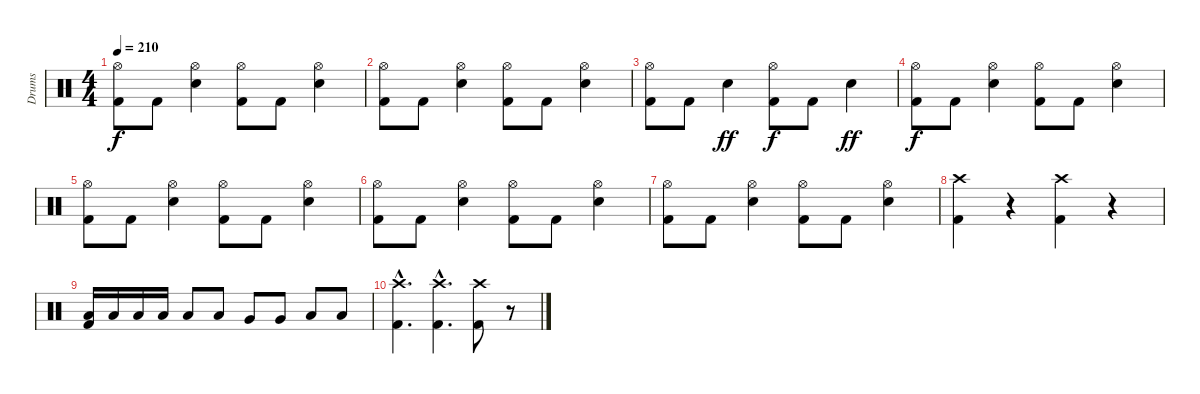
\track ("Drums" "Drums") {instrument percussion}
\staff {score}
\articulation defaults
\ts (4 4)
\tempo 210
\clef neutral
\ks c
("Hi-Hat (open)" "Kick (hit) 2").8{dy f} "Kick (hit) 2".8 ("Hi-Hat (open)" "Snare (hit) 2").4 ("Hi-Hat (open)" "Kick (hit) 2").8 "Kick (hit) 2".8 ("Hi-Hat (open)" "Snare (hit) 2").4 |
("Hi-Hat (open)" "Kick (hit) 2").8 "Kick (hit) 2".8 ("Hi-Hat (open)" "Snare (hit) 2").4 ("Hi-Hat (open)" "Kick (hit) 2").8 "Kick (hit) 2".8 ("Hi-Hat (open)" "Snare (hit) 2").4 |
("Hi-Hat (open)" "Kick (hit) 2").8 "Kick (hit) 2".8 "Snare (hit) 2".4{dy ff} ("Hi-Hat (open)" "Kick (hit) 2").8{dy f} "Kick (hit) 2".8 "Snare (hit) 2".4{dy ff} |
("Hi-Hat (open)" "Kick (hit) 2").8{dy f} "Kick (hit) 2".8 ("Hi-Hat (open)" "Snare (hit) 2").4 ("Hi-Hat (open)" "Kick (hit) 2").8 "Kick (hit) 2".8 ("Hi-Hat (open)" "Snare (hit) 2").4 |
("Hi-Hat (open)" "Kick (hit) 2").8 "Kick (hit) 2".8 ("Hi-Hat (open)" "Snare (hit) 2").4 ("Hi-Hat (open)" "Kick (hit) 2").8 "Kick (hit) 2".8 ("Hi-Hat (open)" "Snare (hit) 2").4 |
("Hi-Hat (open)" "Kick (hit) 2").8 "Kick (hit) 2".8 ("Hi-Hat (open)" "Snare (hit) 2").4 ("Hi-Hat (open)" "Kick (hit) 2").8 "Kick (hit) 2".8 ("Hi-Hat (open)" "Snare (hit) 2").4 |
("Hi-Hat (open)" "Kick (hit) 2").8 "Kick (hit) 2".8 ("Hi-Hat (open)" "Snare (hit) 2").4 ("Hi-Hat (open)" "Kick (hit) 2").8 "Kick (hit) 2".8 ("Hi-Hat (open)" "Snare (hit) 2").4 |
("Crash high (hit)" "Kick (hit) 2").4 r.4{volume 0} ("Crash high (hit)" "Kick (hit) 2").4{volume 16} r.4{volume 16} |
("Low Tom (hit)" "Kick (hit) 2").16 "Low Tom (hit)".16 "Low Tom (hit)".16 "Low Tom (hit)".16 "Low Tom (hit)".8 "Low Tom (hit)".8 "Very Low Tom (hit)".8 "Very Low Tom (hit)".8 "Low Floor Tom (hit)".8 "Low Floor Tom (hit)".8 |
("Crash high (hit)"{hac} "Kick (hit) 2"{hac}).4{d} ("Crash high (hit)"{hac} "Kick (hit) 2"{hac}).4{d} ("Crash high (hit)" "Kick (hit) 2").8 r.8{volume 16}
